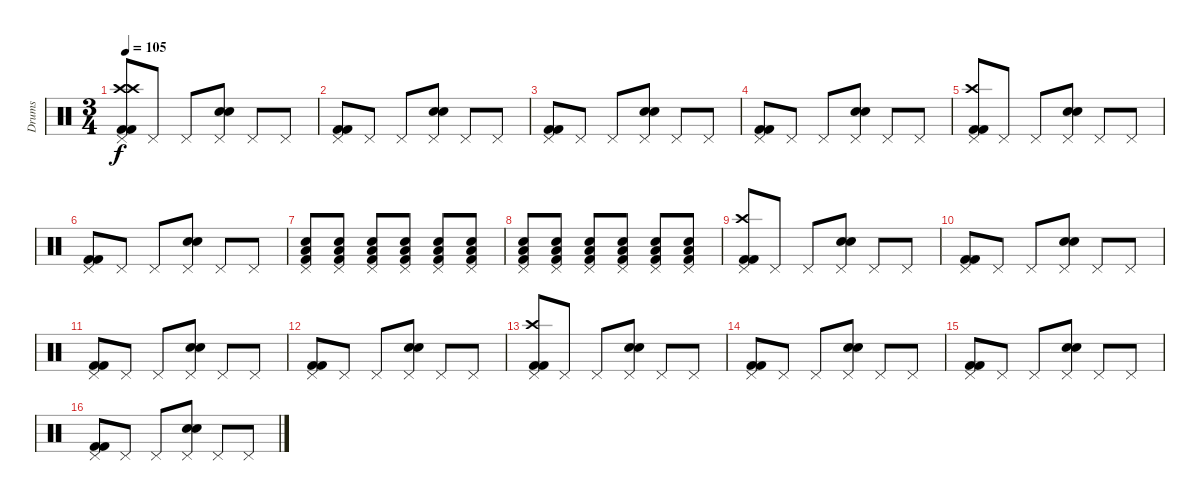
\track ("Drums" "Drums") {instrument percussion}
\staff {score}
\articulation defaults
\ts (3 4)
\tempo 105
\clef neutral
\ks c
("Pedal Hi-Hat (hit)" "Crash high (hit)" "Kick (hit) 2" "Kick (hit) 2" "Crash high (hit)").8{dy f} "Pedal Hi-Hat (hit)".8 "Pedal Hi-Hat (hit)".8 ("Pedal Hi-Hat (hit)" "Electric Snare (hit)" "Electric Snare (hit)").8 "Pedal Hi-Hat (hit)".8 "Pedal Hi-Hat (hit)".8 |
("Pedal Hi-Hat (hit)" "Kick (hit) 2" "Kick (hit) 2").8 "Pedal Hi-Hat (hit)".8 "Pedal Hi-Hat (hit)".8 ("Pedal Hi-Hat (hit)" "Electric Snare (hit)" "Electric Snare (hit)").8 "Pedal Hi-Hat (hit)".8 "Pedal Hi-Hat (hit)".8 |
("Pedal Hi-Hat (hit)" "Kick (hit) 2" "Kick (hit) 2").8 "Pedal Hi-Hat (hit)".8 "Pedal Hi-Hat (hit)".8 ("Pedal Hi-Hat (hit)" "Electric Snare (hit)" "Electric Snare (hit)").8 "Pedal Hi-Hat (hit)".8 "Pedal Hi-Hat (hit)".8 |
("Pedal Hi-Hat (hit)" "Kick (hit) 2" "Kick (hit) 2").8 "Pedal Hi-Hat (hit)".8 "Pedal Hi-Hat (hit)".8 ("Pedal Hi-Hat (hit)" "Electric Snare (hit)" "Electric Snare (hit)").8 "Pedal Hi-Hat (hit)".8 "Pedal Hi-Hat (hit)".8 |
("Pedal Hi-Hat (hit)" "Crash high (hit)" "Kick (hit) 2" "Kick (hit) 2").8 "Pedal Hi-Hat (hit)".8 "Pedal Hi-Hat (hit)".8 ("Pedal Hi-Hat (hit)" "Electric Snare (hit)" "Electric Snare (hit)").8 "Pedal Hi-Hat (hit)".8 "Pedal Hi-Hat (hit)".8 |
("Pedal Hi-Hat (hit)" "Kick (hit) 2" "Kick (hit) 2").8 "Pedal Hi-Hat (hit)".8 "Pedal Hi-Hat (hit)".8 ("Pedal Hi-Hat (hit)" "Electric Snare (hit)" "Electric Snare (hit)").8 "Pedal Hi-Hat (hit)".8 "Pedal Hi-Hat (hit)".8 |
("Low Tom (hit)" "Pedal Hi-Hat (hit)" "Snare (hit) 2" "Kick (hit) 2").8 ("Low Tom (hit)" "Pedal Hi-Hat (hit)" "Snare (hit) 2" "Kick (hit) 2").8 ("Low Tom (hit)" "Pedal Hi-Hat (hit)" "Snare (hit) 2" "Kick (hit) 2").8 ("Low Tom (hit)" "Pedal Hi-Hat (hit)" "Snare (hit) 2" "Kick (hit) 2").8 ("Low Tom (hit)" "Pedal Hi-Hat (hit)" "Snare (hit) 2" "Kick (hit) 2").8 ("Low Tom (hit)" "Pedal Hi-Hat (hit)" "Snare (hit) 2" "Kick (hit) 2").8 |
("Low Tom (hit)" "Pedal Hi-Hat (hit)" "Snare (hit) 2" "Kick (hit) 2").8 ("Low Tom (hit)" "Pedal Hi-Hat (hit)" "Snare (hit) 2" "Kick (hit) 2").8 ("Low Tom (hit)" "Pedal Hi-Hat (hit)" "Snare (hit) 2" "Kick (hit) 2").8 ("Low Tom (hit)" "Pedal Hi-Hat (hit)" "Snare (hit) 2" "Kick (hit) 2").8 ("Low Tom (hit)" "Pedal Hi-Hat (hit)" "Snare (hit) 2" "Kick (hit) 2").8 ("Low Tom (hit)" "Pedal Hi-Hat (hit)" "Snare (hit) 2" "Kick (hit) 2").8 |
("Pedal Hi-Hat (hit)" "Crash high (hit)" "Kick (hit) 2" "Kick (hit) 2").8 "Pedal Hi-Hat (hit)".8 "Pedal Hi-Hat (hit)".8 ("Pedal Hi-Hat (hit)" "Electric Snare (hit)" "Electric Snare (hit)").8 "Pedal Hi-Hat (hit)".8 "Pedal Hi-Hat (hit)".8 |
("Pedal Hi-Hat (hit)" "Kick (hit) 2" "Kick (hit) 2").8 "Pedal Hi-Hat (hit)".8 "Pedal Hi-Hat (hit)".8 ("Pedal Hi-Hat (hit)" "Electric Snare (hit)" "Electric Snare (hit)").8 "Pedal Hi-Hat (hit)".8 "Pedal Hi-Hat (hit)".8 |
("Pedal Hi-Hat (hit)" "Kick (hit) 2" "Kick (hit) 2").8 "Pedal Hi-Hat (hit)".8 "Pedal Hi-Hat (hit)".8 ("Pedal Hi-Hat (hit)" "Electric Snare (hit)" "Electric Snare (hit)").8 "Pedal Hi-Hat (hit)".8 "Pedal Hi-Hat (hit)".8 |
("Pedal Hi-Hat (hit)" "Kick (hit) 2" "Kick (hit) 2").8 "Pedal Hi-Hat (hit)".8 "Pedal Hi-Hat (hit)".8 ("Pedal Hi-Hat (hit)" "Electric Snare (hit)" "Electric Snare (hit)").8 "Pedal Hi-Hat (hit)".8 "Pedal Hi-Hat (hit)".8 |
("Pedal Hi-Hat (hit)" "Crash high (hit)" "Kick (hit) 2" "Kick (hit) 2").8 "Pedal Hi-Hat (hit)".8 "Pedal Hi-Hat (hit)".8 ("Pedal Hi-Hat (hit)" "Electric Snare (hit)" "Electric Snare (hit)").8 "Pedal Hi-Hat (hit)".8 "Pedal Hi-Hat (hit)".8 |
("Pedal Hi-Hat (hit)" "Kick (hit) 2" "Kick (hit) 2").8 "Pedal Hi-Hat (hit)".8 "Pedal Hi-Hat (hit)".8 ("Pedal Hi-Hat (hit)" "Electric Snare (hit)" "Electric Snare (hit)").8 "Pedal Hi-Hat (hit)".8 "Pedal Hi-Hat (hit)".8 |
("Pedal Hi-Hat (hit)" "Kick (hit) 2" "Kick (hit) 2").8 "Pedal Hi-Hat (hit)".8 "Pedal Hi-Hat (hit)".8 ("Pedal Hi-Hat (hit)" "Electric Snare (hit)" "Electric Snare (hit)").8 "Pedal Hi-Hat (hit)".8 "Pedal Hi-Hat (hit)".8 |
("Pedal Hi-Hat (hit)" "Kick (hit) 2" "Kick (hit) 2").8 "Pedal Hi-Hat (hit)".8 "Pedal Hi-Hat (hit)".8 ("Pedal Hi-Hat (hit)" "Electric Snare (hit)" "Electric Snare (hit)").8 "Pedal Hi-Hat (hit)".8 "Pedal Hi-Hat (hit)".8
